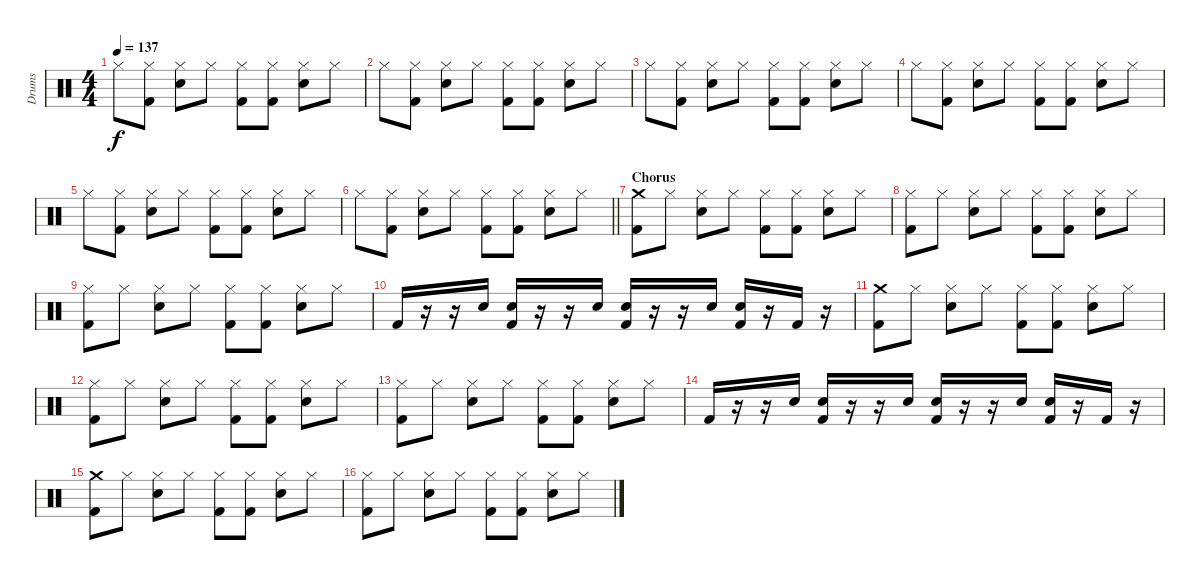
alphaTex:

\track ("Drums" "Drums") {instrument percussion}
\staff {score}
\articulation defaults
\ts (4 4)
\tempo 137
\clef neutral
\ks c "Hi-Hat (closed)".8{dy f}
("Hi-Hat (closed)" "Kick (hit) 2").8 ("Hi-Hat (closed)" "Snare (hit) 2").8 "Hi-Hat (closed)".8 ("Hi-Hat (closed)" "Kick (hit) 2").8 ("Hi-Hat (closed)" "Kick (hit) 2").8 ("Hi-Hat (closed)" "Snare (hit) 2").8 "Hi-Hat (closed)".8 |
"Hi-Hat (closed)".8 ("Hi-Hat (closed)" "Kick (hit) 2").8 ("Hi-Hat (closed)" "Snare (hit) 2").8 "Hi-Hat (closed)".8 ("Hi-Hat (closed)" "Kick (hit) 2").8 ("Hi-Hat (closed)" "Kick (hit) 2").8 ("Hi-Hat (closed)" "Snare (hit) 2").8 "Hi-Hat (closed)".8 |
"Hi-Hat (closed)".8 ("Hi-Hat (closed)" "Kick (hit) 2").8 ("Hi-Hat (closed)" "Snare (hit) 2").8 "Hi-Hat (closed)".8 ("Hi-Hat (closed)" "Kick (hit) 2").8 ("Hi-Hat (closed)" "Kick (hit) 2").8 ("Hi-Hat (closed)" "Snare (hit) 2").8 "Hi-Hat (closed)".8 |
"Hi-Hat (closed)".8 ("Hi-Hat (closed)" "Kick (hit) 2").8 ("Hi-Hat (closed)" "Snare (hit) 2").8 "Hi-Hat (closed)".8 ("Hi-Hat (closed)" "Kick (hit) 2").8 ("Hi-Hat (closed)" "Kick (hit) 2").8 ("Hi-Hat (closed)" "Snare (hit) 2").8 "Hi-Hat (closed)".8 |
"Hi-Hat (closed)".8 ("Hi-Hat (closed)" "Kick (hit) 2").8 ("Hi-Hat (closed)" "Snare (hit) 2").8 "Hi-Hat (closed)".8 ("Hi-Hat (closed)" "Kick (hit) 2").8 ("Hi-Hat (closed)" "Kick (hit) 2").8 ("Hi-Hat (closed)" "Snare (hit) 2").8 "Hi-Hat (closed)".8 |
\barLineRight lightlight "Hi-Hat (closed)".8
("Hi-Hat (closed)" "Kick (hit) 2").8 ("Hi-Hat (closed)" "Snare (hit) 2").8 "Hi-Hat (closed)".8 ("Hi-Hat (closed)" "Kick (hit) 2").8 ("Hi-Hat (closed)" "Kick (hit) 2").8 ("Hi-Hat (closed)" "Snare (hit) 2").8 "Hi-Hat (closed)".8 |
\section ("" "Chorus")
("Crash medium (hit)" "Kick (hit) 2").8 "Hi-Hat (closed)".8 ("Hi-Hat (closed)" "Snare (hit) 2").8 "Hi-Hat (closed)".8 ("Hi-Hat (closed)" "Kick (hit) 2").8 ("Hi-Hat (closed)" "Kick (hit) 2").8 ("Hi-Hat (closed)" "Snare (hit) 2").8 "Hi-Hat (closed)".8 |
("Hi-Hat (closed)" "Kick (hit) 2").8 "Hi-Hat (closed)".8 ("Hi-Hat (closed)" "Snare (hit) 2").8 "Hi-Hat (closed)".8 ("Hi-Hat (closed)" "Kick (hit) 2").8 ("Hi-Hat (closed)" "Kick (hit) 2").8 ("Hi-Hat (closed)" "Snare (hit) 2").8 "Hi-Hat (closed)".8 |
("Hi-Hat (closed)" "Kick (hit) 2").8 "Hi-Hat (closed)".8 ("Hi-Hat (closed)" "Snare (hit) 2").8 "Hi-Hat (closed)".8 ("Hi-Hat (closed)" "Kick (hit) 2").8 ("Hi-Hat (closed)" "Kick (hit) 2").8 ("Hi-Hat (closed)" "Snare (hit) 2").8 "Hi-Hat (closed)".8 |
"Kick (hit) 2".16 r.16 r.16 "Snare (hit) 2".16 ("Snare (hit) 2" "Kick (hit) 2").16 r.16 r.16 "Snare (hit) 2".16 ("Snare (hit) 2" "Kick (hit) 2").16 r.16 r.16 "Snare (hit) 2".16 ("Snare (hit) 2" "Kick (hit) 2").16 r.16 "Kick (hit) 2".16 r.16 |
("Crash medium (hit)" "Kick (hit) 2").8 "Hi-Hat (closed)".8 ("Hi-Hat (closed)" "Snare (hit) 2").8 "Hi-Hat (closed)".8 ("Hi-Hat (closed)" "Kick (hit) 2").8 ("Hi-Hat (closed)" "Kick (hit) 2").8 ("Hi-Hat (closed)" "Snare (hit) 2").8 "Hi-Hat (closed)".8 |
("Hi-Hat (closed)" "Kick (hit) 2").8 "Hi-Hat (closed)".8 ("Hi-Hat (closed)" "Snare (hit) 2").8 "Hi-Hat (closed)".8 ("Hi-Hat (closed)" "Kick (hit) 2").8 ("Hi-Hat (closed)" "Kick (hit) 2").8 ("Hi-Hat (closed)" "Snare (hit) 2").8 "Hi-Hat (closed)".8 |
("Hi-Hat (closed)" "Kick (hit) 2").8 "Hi-Hat (closed)".8 ("Hi-Hat (closed)" "Snare (hit) 2").8 "Hi-Hat (closed)".8 ("Hi-Hat (closed)" "Kick (hit) 2").8 ("Hi-Hat (closed)" "Kick (hit) 2").8 ("Hi-Hat (closed)" "Snare (hit) 2").8 "Hi-Hat (closed)".8 |
"Kick (hit) 2".16 r.16 r.16 "Snare (hit) 2".16 ("Snare (hit) 2" "Kick (hit) 2").16 r.16 r.16 "Snare (hit) 2".16 ("Snare (hit) 2" "Kick (hit) 2").16 r.16 r.16 "Snare (hit) 2".16 ("Snare (hit) 2" "Kick (hit) 2").16 r.16 "Kick (hit) 2".16 r.16 |
("Crash medium (hit)" "Kick (hit) 2").8 "Hi-Hat (closed)".8 ("Hi-Hat (closed)" "Snare (hit) 2").8 "Hi-Hat (closed)".8 ("Hi-Hat (closed)" "Kick (hit) 2").8 ("Hi-Hat (closed)" "Kick (hit) 2").8 ("Hi-Hat (closed)" "Snare (hit) 2").8 "Hi-Hat (closed)".8 |
("Hi-Hat (closed)" "Kick (hit) 2").8 "Hi-Hat (closed)".8 ("Hi-Hat (closed)" "Snare (hit) 2").8 "Hi-Hat (closed)".8 ("Hi-Hat (closed)" "Kick (hit) 2").8 ("Hi-Hat (closed)" "Kick (hit) 2").8 ("Hi-Hat (closed)" "Snare (hit) 2").8 "Hi-Hat (closed)".8
